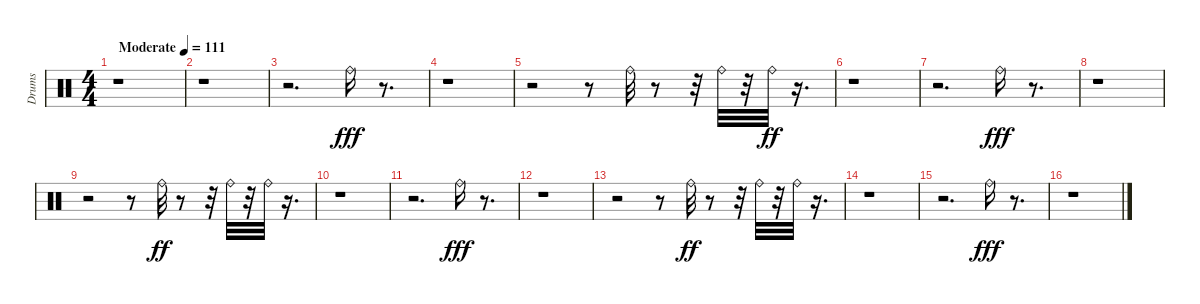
\track ("Drums" "Drums") {instrument percussion}
\staff {score}
\articulation defaults
\ts (4 4)
\tempo (111 "Moderate")
\clef neutral
\ks c
r.1{dy fff} |
r.1 |
r.2{d} "Ride (bell)".16 r.8{d} |
r.1 |
r.2 r.8 "Ride (bell)".32 r.8 r.32 "Ride (bell)".32 r.32 "Ride (bell)".32{dy ff} r.16{d} |
r.1 |
r.2{d} "Ride (bell)".16{dy fff} r.8{d} |
r.1 |
r.2 r.8 "Ride (bell)".32{dy ff} r.8 r.32 "Ride (bell)".32 r.32 "Ride (bell)".32 r.16{d} |
r.1 |
r.2{d} "Ride (bell)".16{dy fff} r.8{d} |
r.1 |
r.2 r.8 "Ride (bell)".32{dy ff} r.8 r.32 "Ride (bell)".32 r.32 "Ride (bell)".32 r.16{d} |
r.1 |
r.2{d} "Ride (bell)".16{dy fff} r.8{d} |
r.1
